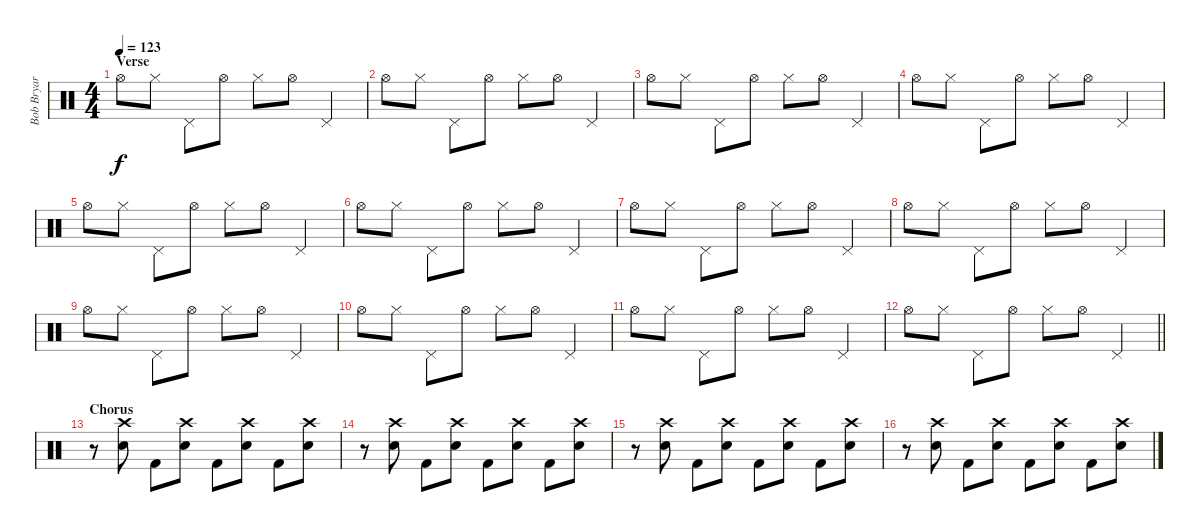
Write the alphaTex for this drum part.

\track ("Bob Bryar" "Bob Bryar") {instrument percussion}
\staff {score}
\articulation defaults
\ts (4 4)
\section ("" "Verse")
\tempo 123
\clef neutral
\ks c "Hi-Hat (open)".8{dy f} "Hi-Hat (closed)".8 "Pedal Hi-Hat (hit)".8 "Hi-Hat (open)".8 "Hi-Hat (closed)".8 "Hi-Hat (open)".8 "Pedal Hi-Hat (hit)".4
|
"Hi-Hat (open)".8 "Hi-Hat (closed)".8 "Pedal Hi-Hat (hit)".8 "Hi-Hat (open)".8 "Hi-Hat (closed)".8 "Hi-Hat (open)".8 "Pedal Hi-Hat (hit)".4 |
"Hi-Hat (open)".8 "Hi-Hat (closed)".8 "Pedal Hi-Hat (hit)".8 "Hi-Hat (open)".8 "Hi-Hat (closed)".8 "Hi-Hat (open)".8 "Pedal Hi-Hat (hit)".4 |
"Hi-Hat (open)".8 "Hi-Hat (closed)".8 "Pedal Hi-Hat (hit)".8 "Hi-Hat (open)".8 "Hi-Hat (closed)".8 "Hi-Hat (open)".8 "Pedal Hi-Hat (hit)".4 |
"Hi-Hat (open)".8 "Hi-Hat (closed)".8 "Pedal Hi-Hat (hit)".8 "Hi-Hat (open)".8 "Hi-Hat (closed)".8 "Hi-Hat (open)".8 "Pedal Hi-Hat (hit)".4 |
"Hi-Hat (open)".8 "Hi-Hat (closed)".8 "Pedal Hi-Hat (hit)".8 "Hi-Hat (open)".8 "Hi-Hat (closed)".8 "Hi-Hat (open)".8 "Pedal Hi-Hat (hit)".4 |
"Hi-Hat (open)".8 "Hi-Hat (closed)".8 "Pedal Hi-Hat (hit)".8 "Hi-Hat (open)".8 "Hi-Hat (closed)".8 "Hi-Hat (open)".8 "Pedal Hi-Hat (hit)".4 |
"Hi-Hat (open)".8 "Hi-Hat (closed)".8 "Pedal Hi-Hat (hit)".8 "Hi-Hat (open)".8 "Hi-Hat (closed)".8 "Hi-Hat (open)".8 "Pedal Hi-Hat (hit)".4 |
"Hi-Hat (open)".8 "Hi-Hat (closed)".8 "Pedal Hi-Hat (hit)".8 "Hi-Hat (open)".8 "Hi-Hat (closed)".8 "Hi-Hat (open)".8 "Pedal Hi-Hat (hit)".4 |
"Hi-Hat (open)".8 "Hi-Hat (closed)".8 "Pedal Hi-Hat (hit)".8 "Hi-Hat (open)".8 "Hi-Hat (closed)".8 "Hi-Hat (open)".8 "Pedal Hi-Hat (hit)".4 |
"Hi-Hat (open)".8 "Hi-Hat (closed)".8 "Pedal Hi-Hat (hit)".8 "Hi-Hat (open)".8 "Hi-Hat (closed)".8 "Hi-Hat (open)".8 "Pedal Hi-Hat (hit)".4 |
\barLineRight lightlight "Hi-Hat (open)".8 "Hi-Hat (closed)".8 "Pedal Hi-Hat (hit)".8 "Hi-Hat (open)".8 "Hi-Hat (closed)".8 "Hi-Hat (open)".8 "Pedal Hi-Hat (hit)".4
|
\section ("" "Chorus")
r.8 ("Crash high (hit)" "Electric Snare (hit)").8 "Kick (hit) 2".8 ("Crash high (hit)" "Electric Snare (hit)").8 "Kick (hit) 2".8 ("Crash high (hit)" "Electric Snare (hit)").8 "Kick (hit) 2".8 ("Crash high (hit)" "Electric Snare (hit)").8 |
r.8 ("Crash high (hit)" "Electric Snare (hit)").8 "Kick (hit) 2".8 ("Crash high (hit)" "Electric Snare (hit)").8 "Kick (hit) 2".8 ("Crash high (hit)" "Electric Snare (hit)").8 "Kick (hit) 2".8 ("Crash high (hit)" "Electric Snare (hit)").8 |
r.8 ("Crash high (hit)" "Electric Snare (hit)").8 "Kick (hit) 2".8 ("Crash high (hit)" "Electric Snare (hit)").8 "Kick (hit) 2".8 ("Crash high (hit)" "Electric Snare (hit)").8 "Kick (hit) 2".8 ("Crash high (hit)" "Electric Snare (hit)").8 |
r.8 ("Crash high (hit)" "Electric Snare (hit)").8 "Kick (hit) 2".8 ("Crash high (hit)" "Electric Snare (hit)").8 "Kick (hit) 2".8 ("Crash high (hit)" "Electric Snare (hit)").8 "Kick (hit) 2".8 ("Crash high (hit)" "Electric Snare (hit)").8
